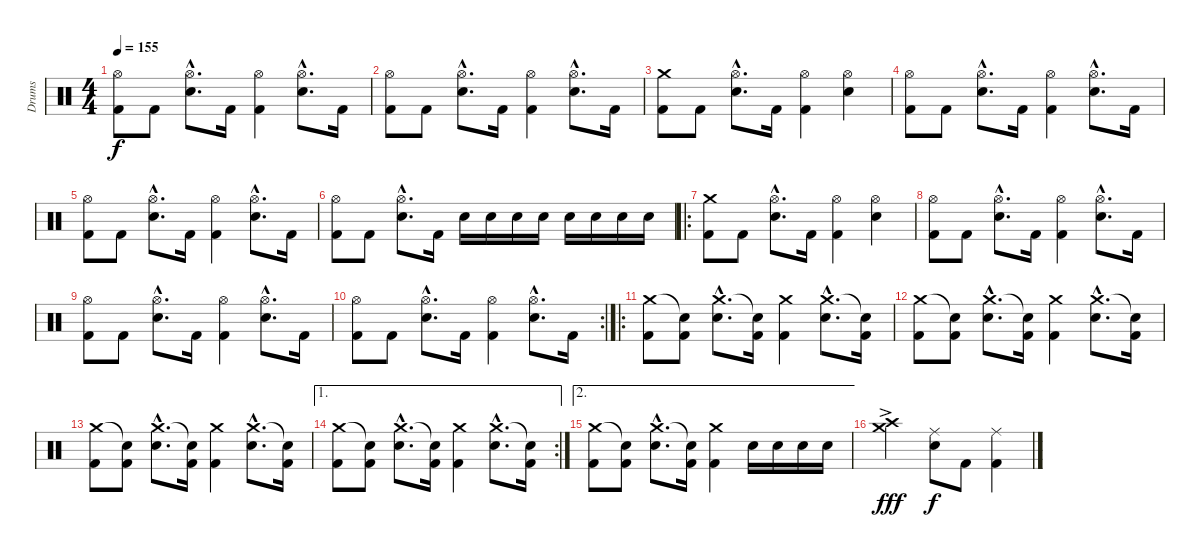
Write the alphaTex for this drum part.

\track ("Drums" "Drums") {instrument percussion}
\staff {score}
\articulation defaults
\ts (4 4)
\tempo 155
\clef neutral
\ks c
("Hi-Hat (open)" "Kick (hit) 2").8{dy f} "Kick (hit) 2".8 ("Hi-Hat (open)"{hac} "Snare (hit) 2"{hac}).8{d} "Kick (hit) 2".16 ("Hi-Hat (open)" "Kick (hit) 2").4 ("Hi-Hat (open)"{hac} "Snare (hit) 2"{hac}).8{d} "Kick (hit) 2".16 |
("Hi-Hat (open)" "Kick (hit) 2").8 "Kick (hit) 2".8 ("Hi-Hat (open)"{hac} "Snare (hit) 2"{hac}).8{d} "Kick (hit) 2".16 ("Hi-Hat (open)" "Kick (hit) 2").4 ("Hi-Hat (open)"{hac} "Snare (hit) 2"{hac}).8{d} "Kick (hit) 2".16 |
("Crash medium (hit)" "Kick (hit) 2").8 "Kick (hit) 2".8 ("Hi-Hat (open)"{hac} "Snare (hit) 2"{hac}).8{d} "Kick (hit) 2".16 ("Hi-Hat (open)" "Kick (hit) 2").4 ("Hi-Hat (open)" "Snare (hit) 2").4 |
("Hi-Hat (open)" "Kick (hit) 2").8 "Kick (hit) 2".8 ("Hi-Hat (open)"{hac} "Snare (hit) 2"{hac}).8{d} "Kick (hit) 2".16 ("Hi-Hat (open)" "Kick (hit) 2").4 ("Hi-Hat (open)"{hac} "Snare (hit) 2"{hac}).8{d} "Kick (hit) 2".16 |
("Hi-Hat (open)" "Kick (hit) 2").8 "Kick (hit) 2".8 ("Hi-Hat (open)"{hac} "Snare (hit) 2"{hac}).8{d} "Kick (hit) 2".16 ("Hi-Hat (open)" "Kick (hit) 2").4 ("Hi-Hat (open)"{hac} "Snare (hit) 2"{hac}).8{d} "Kick (hit) 2".16 |
("Hi-Hat (open)" "Kick (hit) 2").8 "Kick (hit) 2".8 ("Hi-Hat (open)"{hac} "Snare (hit) 2"{hac}).8{d} "Kick (hit) 2".16 "Snare (hit) 2".16 "Snare (hit) 2".16 "Snare (hit) 2".16 "Snare (hit) 2".16 "Snare (hit) 2".16 "Snare (hit) 2".16 "Snare (hit) 2".16 "Snare (hit) 2".16 |
\ro
("Crash medium (hit)" "Kick (hit) 2").8 "Kick (hit) 2".8 ("Hi-Hat (open)"{hac} "Snare (hit) 2"{hac}).8{d} "Kick (hit) 2".16 ("Hi-Hat (open)" "Kick (hit) 2").4 ("Hi-Hat (open)" "Snare (hit) 2").4 |
("Hi-Hat (open)" "Kick (hit) 2").8 "Kick (hit) 2".8 ("Hi-Hat (open)"{hac} "Snare (hit) 2"{hac}).8{d} "Kick (hit) 2".16 ("Hi-Hat (open)" "Kick (hit) 2").4 ("Hi-Hat (open)"{hac} "Snare (hit) 2"{hac}).8{d} "Kick (hit) 2".16 |
("Hi-Hat (open)" "Kick (hit) 2").8 "Kick (hit) 2".8 ("Hi-Hat (open)"{hac} "Snare (hit) 2"{hac}).8{d} "Kick (hit) 2".16 ("Hi-Hat (open)" "Kick (hit) 2").4 ("Hi-Hat (open)"{hac} "Snare (hit) 2"{hac}).8{d} "Kick (hit) 2".16 |
\rc 2
("Hi-Hat (open)" "Kick (hit) 2").8 "Kick (hit) 2".8 ("Hi-Hat (open)"{hac} "Snare (hit) 2"{hac}).8{d} "Kick (hit) 2".16 ("Hi-Hat (open)" "Kick (hit) 2").4 ("Hi-Hat (open)"{hac} "Snare (hit) 2"{hac}).8{d} "Kick (hit) 2".16 |
\ro
("Crash medium (hit)" "Kick (hit) 2").8 ("Snare (hit)"{t} "Kick (hit) 2").8 ("Crash medium (hit)"{hac} "Snare (hit) 2"{hac}).8{d} ("Snare (hit)"{t} "Kick (hit) 2").16 ("Crash medium (hit)" "Kick (hit) 2").4 ("Crash medium (hit)"{hac} "Snare (hit) 2"{hac}).8{d} ("Snare (hit)"{t} "Kick (hit) 2").16 |
("Crash medium (hit)" "Kick (hit) 2").8 ("Snare (hit)"{t} "Kick (hit) 2").8 ("Crash medium (hit)"{hac} "Snare (hit) 2"{hac}).8{d} ("Snare (hit)"{t} "Kick (hit) 2").16 ("Crash medium (hit)" "Kick (hit) 2").4 ("Crash medium (hit)"{hac} "Snare (hit) 2"{hac}).8{d} ("Snare (hit)"{t} "Kick (hit) 2").16 |
("Crash medium (hit)" "Kick (hit) 2").8 ("Snare (hit)"{t} "Kick (hit) 2").8 ("Crash medium (hit)"{hac} "Snare (hit) 2"{hac}).8{d} ("Snare (hit)"{t} "Kick (hit) 2").16 ("Crash medium (hit)" "Kick (hit) 2").4 ("Crash medium (hit)"{hac} "Snare (hit) 2"{hac}).8{d} ("Snare (hit)"{t} "Kick (hit) 2").16 |
\ae 1
\rc 2
("Crash medium (hit)" "Kick (hit) 2").8 ("Snare (hit)"{t} "Kick (hit) 2").8 ("Crash medium (hit)"{hac} "Snare (hit) 2"{hac}).8{d} ("Snare (hit)"{t} "Kick (hit) 2").16 ("Crash medium (hit)" "Kick (hit) 2").4 ("Crash medium (hit)"{hac} "Snare (hit) 2"{hac}).8{d} ("Snare (hit)"{t} "Kick (hit) 2").16 |
\ae 2
("Crash medium (hit)" "Kick (hit) 2").8 ("Snare (hit)"{t} "Kick (hit) 2").8 ("Crash medium (hit)"{hac} "Snare (hit) 2"{hac}).8{d} ("Snare (hit)"{t} "Kick (hit) 2").16 ("Crash medium (hit)" "Kick (hit) 2").4 "Snare (hit) 2".16 "Snare (hit) 2".16 "Snare (hit) 2".16 "Snare (hit) 2".16 |
("Crash medium (hit)"{ac} "Crash high (hit)"{ac}).2{dy fff} ("Ride (middle)" "Snare (hit) 2").8{dy f} "Kick (hit) 2".8 ("Ride (middle)" "Kick (hit) 2").4
